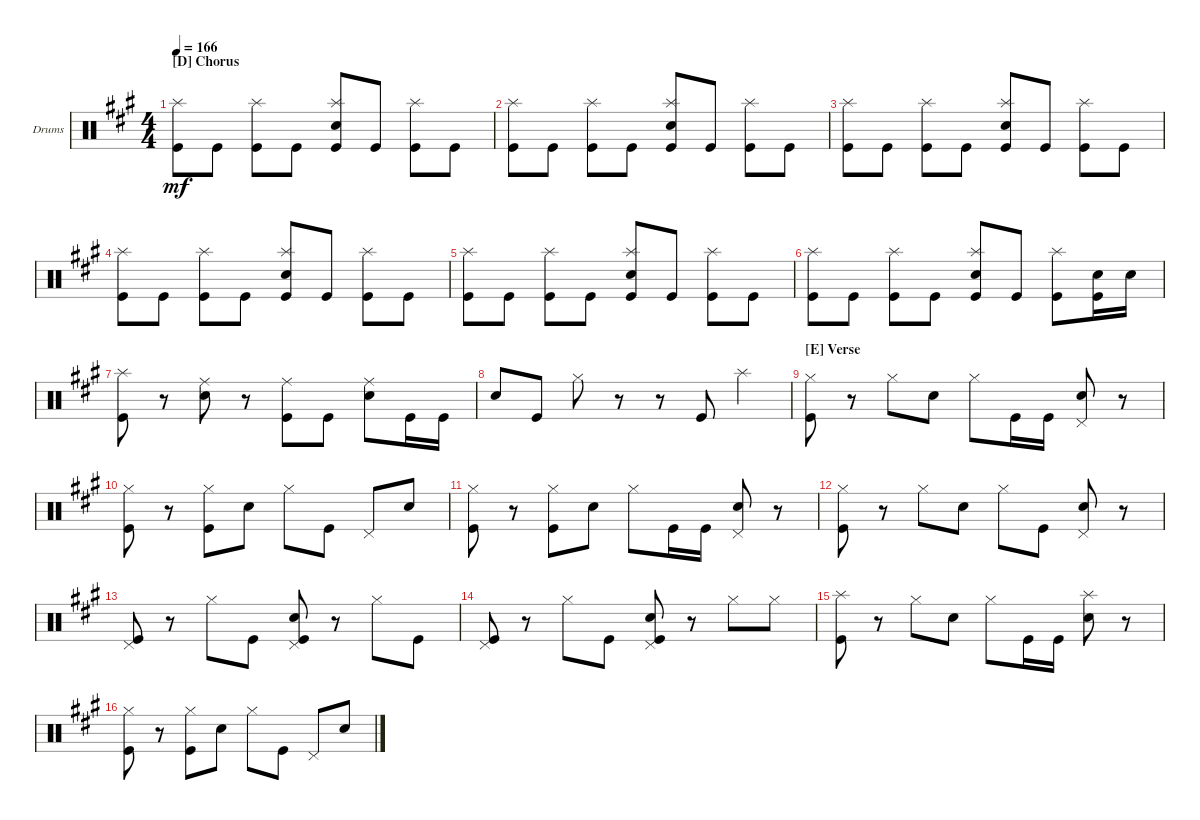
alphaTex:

\defaultSystemsLayout 4
\bracketExtendMode groupsimilarinstruments
\firstSystemTrackNameOrientation horizontal
\otherSystemsTrackNameOrientation horizontal
\track ("Drumkit" "Drums") {instrument percussion}
\staff {score}
\articulation defaults
\ts (4 4)
\section ("D" "Chorus")
\tempo 166
\clef neutral
\ks a
("Kick (hit)" "Splash (hit)").8{dy mf} "Kick (hit)".8 ("Kick (hit)" "Splash (hit)").8 "Kick (hit)".8 ("Kick (hit)" "Splash (hit)" "Snare (hit) 2").8 "Kick (hit)".8 ("Kick (hit)" "Splash (hit)").8 "Kick (hit)".8 |
("Kick (hit)" "Splash (hit)").8 "Kick (hit)".8 ("Kick (hit)" "Splash (hit)").8 "Kick (hit)".8 ("Kick (hit)" "Splash (hit)" "Snare (hit) 2").8 "Kick (hit)".8 ("Kick (hit)" "Splash (hit)").8 "Kick (hit)".8 |
("Kick (hit)" "Splash (hit)").8 "Kick (hit)".8 ("Kick (hit)" "Splash (hit)").8 "Kick (hit)".8 ("Kick (hit)" "Splash (hit)" "Snare (hit) 2").8 "Kick (hit)".8 ("Kick (hit)" "Splash (hit)").8 "Kick (hit)".8 |
("Kick (hit)" "Splash (hit)").8 "Kick (hit)".8 ("Kick (hit)" "Splash (hit)").8 "Kick (hit)".8 ("Kick (hit)" "Splash (hit)" "Snare (hit) 2").8 "Kick (hit)".8 ("Kick (hit)" "Splash (hit)").8 "Kick (hit)".8 |
("Kick (hit)" "Splash (hit)").8 "Kick (hit)".8 ("Kick (hit)" "Splash (hit)").8 "Kick (hit)".8 ("Kick (hit)" "Splash (hit)" "Snare (hit) 2").8 "Kick (hit)".8 ("Kick (hit)" "Splash (hit)").8 "Kick (hit)".8 |
("Kick (hit)" "Splash (hit)").8 "Kick (hit)".8 ("Kick (hit)" "Splash (hit)").8 "Kick (hit)".8 ("Kick (hit)" "Splash (hit)" "Snare (hit) 2").8 "Kick (hit)".8 ("Kick (hit)" "Splash (hit)").8 ("Kick (hit)" "Snare (hit) 2").16 "Snare (hit) 2".16 |
("Splash (hit)" "Kick (hit)").8 r.8 ("Snare (hit) 2" "Ride (middle)").8 r.8 ("Kick (hit)" "Ride (middle)").8 "Kick (hit)".8 ("Snare (hit) 2" "Ride (middle)").8 "Kick (hit)".16 "Kick (hit)".16 |
"Snare (hit) 2".8 "Kick (hit)".8 "Hi-Hat (closed)".8 r.8 r.8 "Kick (hit)".8 "Splash (hit)".4 |
\section ("E" "Verse")
("Kick (hit)" "Hi-Hat (closed)").8 r.8 "Hi-Hat (closed)".8 "Snare (hit) 2".8 "Hi-Hat (closed)".8 "Kick (hit)".16 "Kick (hit)".16 ("Pedal Hi-Hat (hit)" "Snare (hit) 2").8 r.8 |
("Kick (hit)" "Hi-Hat (closed)").8 r.8 ("Hi-Hat (closed)" "Kick (hit)").8 "Snare (hit) 2".8 "Hi-Hat (closed)".8 "Kick (hit)".8 "Pedal Hi-Hat (hit)".8 "Snare (hit) 2".8 |
("Kick (hit)" "Hi-Hat (closed)").8 r.8 ("Hi-Hat (closed)" "Kick (hit)").8 "Snare (hit) 2".8 "Hi-Hat (closed)".8 "Kick (hit)".16 "Kick (hit)".16 ("Pedal Hi-Hat (hit)" "Snare (hit) 2").8 r.8 |
("Kick (hit)" "Hi-Hat (closed)").8 r.8 "Hi-Hat (closed)".8 "Snare (hit) 2".8 "Hi-Hat (closed)".8 "Kick (hit)".8 ("Pedal Hi-Hat (hit)" "Snare (hit) 2").8 r.8 |
("Kick (hit)" "Pedal Hi-Hat (hit)").8 r.8 "Hi-Hat (closed)".8 "Kick (hit)".8 ("Kick (hit)" "Pedal Hi-Hat (hit)" "Snare (hit) 2").8 r.8 "Hi-Hat (closed)".8 "Kick (hit)".8 |
("Kick (hit)" "Pedal Hi-Hat (hit)").8 r.8 "Hi-Hat (closed)".8 "Kick (hit)".8 ("Kick (hit)" "Pedal Hi-Hat (hit)" "Snare (hit) 2").8 r.8 "Hi-Hat (closed)".8 "Hi-Hat (closed)".8 |
("Kick (hit)" "Splash (hit)").8 r.8 "Hi-Hat (closed)".8 "Snare (hit) 2".8 "Hi-Hat (closed)".8 "Kick (hit)".16 "Kick (hit)".16 ("Snare (hit) 2" "Splash (hit)").8 r.8 |
("Kick (hit)" "Hi-Hat (closed)").8 r.8 ("Hi-Hat (closed)" "Kick (hit)").8 "Snare (hit) 2".8 "Hi-Hat (closed)".8 "Kick (hit)".8 "Pedal Hi-Hat (hit)".8 "Snare (hit) 2".8
